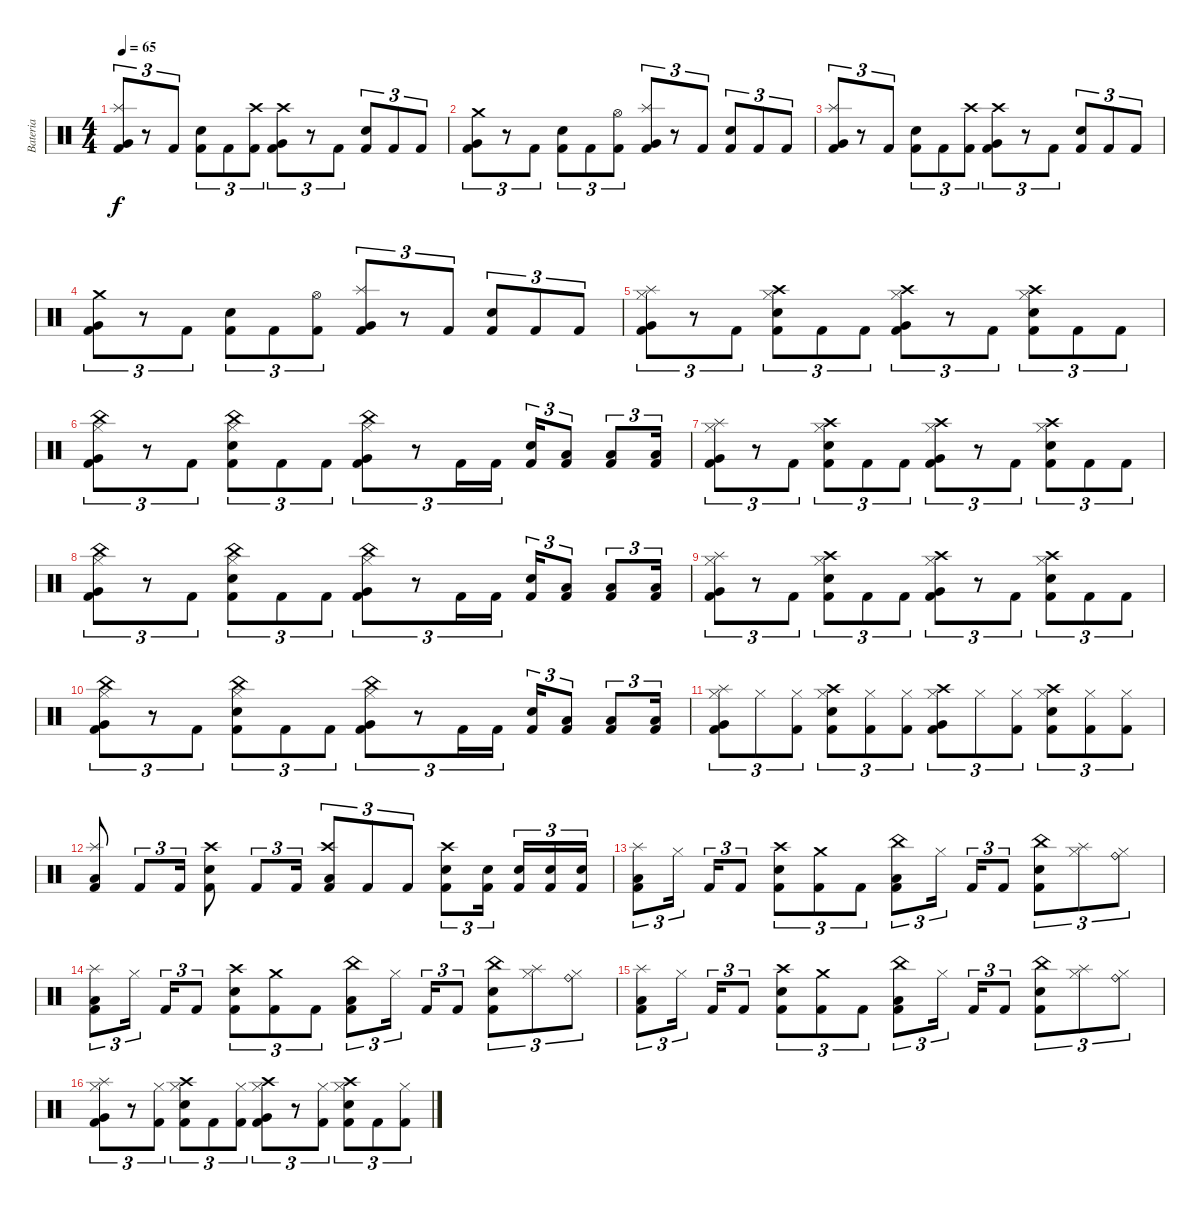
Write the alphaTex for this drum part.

\track ("Bateria" "Bateria") {instrument percussion}
\staff {score}
\articulation defaults
\ts (4 4)
\tempo 65
\clef neutral
\ks c
("Kick (hit) 2" "Splash (hit)" "Very Low Tom (hit)").8{tu (3 2) dy f} r.8{tu (3 2)} "Kick (hit) 2".8{tu (3 2)} ("Snare (hit) 2" "Kick (hit) 2").8{tu (3 2)} "Kick (hit) 2".8{tu (3 2)} ("Crash high (hit)" "Kick (hit) 2").8{tu (3 2)} ("Kick (hit) 2" "Crash high (hit)" "Very Low Tom (hit)").8{tu (3 2)} r.8{tu (3 2)} "Kick (hit) 2".8{tu (3 2)} ("Snare (hit) 2" "Kick (hit) 2").8{tu (3 2)} "Kick (hit) 2".8{tu (3 2)} "Kick (hit) 2".8{tu (3 2)} |
("Kick (hit) 2" "Crash medium (hit)" "Very Low Tom (hit)").8{tu (3 2)} r.8{tu (3 2)} "Kick (hit) 2".8{tu (3 2)} ("Snare (hit) 2" "Kick (hit) 2").8{tu (3 2)} "Kick (hit) 2".8{tu (3 2)} ("Hi-Hat (open)" "Kick (hit) 2").8{tu (3 2)} ("Kick (hit) 2" "Splash (hit)" "Very Low Tom (hit)").8{tu (3 2)} r.8{tu (3 2)} "Kick (hit) 2".8{tu (3 2)} ("Snare (hit) 2" "Kick (hit) 2").8{tu (3 2)} "Kick (hit) 2".8{tu (3 2)} "Kick (hit) 2".8{tu (3 2)} |
("Kick (hit) 2" "Splash (hit)" "Very Low Tom (hit)").8{tu (3 2)} r.8{tu (3 2)} "Kick (hit) 2".8{tu (3 2)} ("Snare (hit) 2" "Kick (hit) 2").8{tu (3 2)} "Kick (hit) 2".8{tu (3 2)} ("Crash high (hit)" "Kick (hit) 2").8{tu (3 2)} ("Kick (hit) 2" "Crash high (hit)" "Very Low Tom (hit)").8{tu (3 2)} r.8{tu (3 2)} "Kick (hit) 2".8{tu (3 2)} ("Snare (hit) 2" "Kick (hit) 2").8{tu (3 2)} "Kick (hit) 2".8{tu (3 2)} "Kick (hit) 2".8{tu (3 2)} |
("Kick (hit) 2" "Crash medium (hit)" "Very Low Tom (hit)").8{tu (3 2)} r.8{tu (3 2)} "Kick (hit) 2".8{tu (3 2)} ("Snare (hit) 2" "Kick (hit) 2").8{tu (3 2)} "Kick (hit) 2".8{tu (3 2)} ("Hi-Hat (open)" "Kick (hit) 2").8{tu (3 2)} ("Kick (hit) 2" "Splash (hit)" "Very Low Tom (hit)").8{tu (3 2)} r.8{tu (3 2)} "Kick (hit) 2".8{tu (3 2)} ("Snare (hit) 2" "Kick (hit) 2").8{tu (3 2)} "Kick (hit) 2".8{tu (3 2)} "Kick (hit) 2".8{tu (3 2)} |
("Kick (hit) 2" "Splash (hit)" "Very Low Tom (hit)" "Hi-Hat (closed)").8{tu (3 2)} r.8{tu (3 2)} "Kick (hit) 2".8{tu (3 2)} ("Snare (hit) 2" "Kick (hit) 2" "Crash high (hit)" "Hi-Hat (closed)").8{tu (3 2)} "Kick (hit) 2".8{tu (3 2)} "Kick (hit) 2".8{tu (3 2)} ("Kick (hit) 2" "Crash high (hit)" "Very Low Tom (hit)" "Hi-Hat (closed)").8{tu (3 2)} r.8{tu (3 2)} "Kick (hit) 2".8{tu (3 2)} ("Snare (hit) 2" "Kick (hit) 2" "Crash high (hit)" "Hi-Hat (closed)").8{tu (3 2)} "Kick (hit) 2".8{tu (3 2)} "Kick (hit) 2".8{tu (3 2)} |
("Kick (hit) 2" "China (hit)" "Very Low Tom (hit)" "Hi-Hat (closed)").8{tu (3 2)} r.8{tu (3 2)} "Kick (hit) 2".8{tu (3 2)} ("Snare (hit) 2" "Kick (hit) 2" "China (hit)" "Hi-Hat (closed)").8{tu (3 2)} "Kick (hit) 2".8{tu (3 2)} "Kick (hit) 2".8{tu (3 2)} ("Kick (hit) 2" "China (hit)" "Very Low Tom (hit)" "Hi-Hat (closed)").8{tu (3 2)} r.8{tu (3 2)} "Kick (hit) 2".16{tu (3 2)} "Kick (hit) 2".16{tu (3 2)} ("Snare (hit) 2" "Kick (hit) 2").16{tu (3 2)} ("Low Floor Tom (hit)" "Kick (hit) 2").8{tu (3 2)} ("Kick (hit) 2" "Low Floor Tom (hit)").8{tu (3 2)} ("Low Floor Tom (hit)" "Kick (hit) 2").16{tu (3 2)} |
("Kick (hit) 2" "Splash (hit)" "Very Low Tom (hit)" "Hi-Hat (closed)").8{tu (3 2)} r.8{tu (3 2)} "Kick (hit) 2".8{tu (3 2)} ("Snare (hit) 2" "Kick (hit) 2" "Crash high (hit)" "Hi-Hat (closed)").8{tu (3 2)} "Kick (hit) 2".8{tu (3 2)} "Kick (hit) 2".8{tu (3 2)} ("Kick (hit) 2" "Crash high (hit)" "Very Low Tom (hit)" "Hi-Hat (closed)").8{tu (3 2)} r.8{tu (3 2)} "Kick (hit) 2".8{tu (3 2)} ("Snare (hit) 2" "Kick (hit) 2" "Crash high (hit)" "Hi-Hat (closed)").8{tu (3 2)} "Kick (hit) 2".8{tu (3 2)} "Kick (hit) 2".8{tu (3 2)} |
("Kick (hit) 2" "China (hit)" "Very Low Tom (hit)" "Hi-Hat (closed)").8{tu (3 2)} r.8{tu (3 2)} "Kick (hit) 2".8{tu (3 2)} ("Snare (hit) 2" "Kick (hit) 2" "China (hit)" "Hi-Hat (closed)").8{tu (3 2)} "Kick (hit) 2".8{tu (3 2)} "Kick (hit) 2".8{tu (3 2)} ("Kick (hit) 2" "China (hit)" "Very Low Tom (hit)" "Hi-Hat (closed)").8{tu (3 2)} r.8{tu (3 2)} "Kick (hit) 2".16{tu (3 2)} "Kick (hit) 2".16{tu (3 2)} ("Snare (hit) 2" "Kick (hit) 2").16{tu (3 2)} ("Low Floor Tom (hit)" "Kick (hit) 2").8{tu (3 2)} ("Kick (hit) 2" "Low Floor Tom (hit)").8{tu (3 2)} ("Low Floor Tom (hit)" "Kick (hit) 2").16{tu (3 2)} |
("Kick (hit) 2" "Splash (hit)" "Very Low Tom (hit)" "Hi-Hat (closed)").8{tu (3 2)} r.8{tu (3 2)} "Kick (hit) 2".8{tu (3 2)} ("Snare (hit) 2" "Kick (hit) 2" "Crash high (hit)" "Hi-Hat (closed)").8{tu (3 2)} "Kick (hit) 2".8{tu (3 2)} "Kick (hit) 2".8{tu (3 2)} ("Kick (hit) 2" "Crash high (hit)" "Very Low Tom (hit)" "Hi-Hat (closed)").8{tu (3 2)} r.8{tu (3 2)} "Kick (hit) 2".8{tu (3 2)} ("Snare (hit) 2" "Kick (hit) 2" "Crash high (hit)" "Hi-Hat (closed)").8{tu (3 2)} "Kick (hit) 2".8{tu (3 2)} "Kick (hit) 2".8{tu (3 2)} |
("Kick (hit) 2" "China (hit)" "Very Low Tom (hit)" "Hi-Hat (closed)").8{tu (3 2)} r.8{tu (3 2)} "Kick (hit) 2".8{tu (3 2)} ("Snare (hit) 2" "Kick (hit) 2" "China (hit)" "Hi-Hat (closed)").8{tu (3 2)} "Kick (hit) 2".8{tu (3 2)} "Kick (hit) 2".8{tu (3 2)} ("Kick (hit) 2" "China (hit)" "Very Low Tom (hit)" "Hi-Hat (closed)").8{tu (3 2)} r.8{tu (3 2)} "Kick (hit) 2".16{tu (3 2)} "Kick (hit) 2".16{tu (3 2)} ("Snare (hit) 2" "Kick (hit) 2").16{tu (3 2)} ("Low Floor Tom (hit)" "Kick (hit) 2").8{tu (3 2)} ("Kick (hit) 2" "Low Floor Tom (hit)").8{tu (3 2)} ("Low Floor Tom (hit)" "Kick (hit) 2").16{tu (3 2)} |
("Kick (hit) 2" "Splash (hit)" "Very Low Tom (hit)" "Hi-Hat (closed)").8{tu (3 2)} "Hi-Hat (closed)".8{tu (3 2)} ("Kick (hit) 2" "Hi-Hat (closed)").8{tu (3 2)} ("Snare (hit) 2" "Kick (hit) 2" "Crash high (hit)" "Hi-Hat (closed)").8{tu (3 2)} ("Kick (hit) 2" "Hi-Hat (closed)").8{tu (3 2)} ("Kick (hit) 2" "Hi-Hat (closed)").8{tu (3 2)} ("Kick (hit) 2" "Crash high (hit)" "Very Low Tom (hit)" "Hi-Hat (closed)").8{tu (3 2)} "Hi-Hat (closed)".8{tu (3 2)} ("Kick (hit) 2" "Hi-Hat (closed)").8{tu (3 2)} ("Snare (hit) 2" "Kick (hit) 2" "Crash high (hit)" "Hi-Hat (closed)").8{tu (3 2)} ("Kick (hit) 2" "Hi-Hat (closed)").8{tu (3 2)} ("Kick (hit) 2" "Hi-Hat (closed)").8{tu (3 2)} |
("Kick (hit) 2" "Low Floor Tom (hit)" "Splash (hit)").8 "Kick (hit) 2".8{tu (3 2)} "Kick (hit) 2".16{tu (3 2)} ("Kick (hit) 2" "Snare (hit) 2" "Crash high (hit)").8 "Kick (hit) 2".8{tu (3 2)} "Kick (hit) 2".16{tu (3 2)} ("Kick (hit) 2" "Low Floor Tom (hit)" "Crash high (hit)").8{tu (3 2)} "Kick (hit) 2".8{tu (3 2)} "Kick (hit) 2".8{tu (3 2)} ("Kick (hit) 2" "Snare (hit) 2" "Crash high (hit)").8{tu (3 2)} ("Kick (hit) 2" "Snare (hit) 2").16{tu (3 2) beam splitsecondary} ("Kick (hit) 2" "Snare (hit) 2").16{tu (3 2)} ("Kick (hit) 2" "Snare (hit) 2").16{tu (3 2)} ("Kick (hit) 2" "Snare (hit) 2").16{tu (3 2)} |
("Kick (hit) 2" "Splash (hit)" "Low Floor Tom (hit)").8{tu (3 2)} "Hi-Hat (closed)".16{tu (3 2) beam splitsecondary} "Kick (hit) 2".16{tu (3 2)} "Kick (hit) 2".8{tu (3 2)} ("Snare (hit) 2" "Kick (hit) 2" "Crash high (hit)").8{tu (3 2)} ("Crash medium (hit)" "Kick (hit) 2").8{tu (3 2)} "Kick (hit) 2".8{tu (3 2)} ("Kick (hit) 2" "China (hit)" "Low Floor Tom (hit)").8{tu (3 2)} "Hi-Hat (closed)".16{tu (3 2) beam splitsecondary} "Kick (hit) 2".16{tu (3 2)} "Kick (hit) 2".8{tu (3 2)} ("Snare (hit) 2" "Kick (hit) 2" "China (hit)").8{tu (3 2)} ("Hi-Hat (closed)" "Splash (hit)").8{tu (3 2)} ("Hi-Hat (closed)" "Ride (bell)").8{tu (3 2)} |
("Kick (hit) 2" "Splash (hit)" "Low Floor Tom (hit)").8{tu (3 2)} "Hi-Hat (closed)".16{tu (3 2) beam splitsecondary} "Kick (hit) 2".16{tu (3 2)} "Kick (hit) 2".8{tu (3 2)} ("Snare (hit) 2" "Kick (hit) 2" "Crash high (hit)").8{tu (3 2)} ("Crash medium (hit)" "Kick (hit) 2").8{tu (3 2)} "Kick (hit) 2".8{tu (3 2)} ("Kick (hit) 2" "China (hit)" "Low Floor Tom (hit)").8{tu (3 2)} "Hi-Hat (closed)".16{tu (3 2) beam splitsecondary} "Kick (hit) 2".16{tu (3 2)} "Kick (hit) 2".8{tu (3 2)} ("Snare (hit) 2" "Kick (hit) 2" "China (hit)").8{tu (3 2)} ("Hi-Hat (closed)" "Splash (hit)").8{tu (3 2)} ("Hi-Hat (closed)" "Ride (bell)").8{tu (3 2)} |
("Kick (hit) 2" "Splash (hit)" "Low Floor Tom (hit)").8{tu (3 2)} "Hi-Hat (closed)".16{tu (3 2) beam splitsecondary} "Kick (hit) 2".16{tu (3 2)} "Kick (hit) 2".8{tu (3 2)} ("Snare (hit) 2" "Kick (hit) 2" "Crash high (hit)").8{tu (3 2)} ("Crash medium (hit)" "Kick (hit) 2").8{tu (3 2)} "Kick (hit) 2".8{tu (3 2)} ("Kick (hit) 2" "China (hit)" "Low Floor Tom (hit)").8{tu (3 2)} "Hi-Hat (closed)".16{tu (3 2) beam splitsecondary} "Kick (hit) 2".16{tu (3 2)} "Kick (hit) 2".8{tu (3 2)} ("Snare (hit) 2" "Kick (hit) 2" "China (hit)").8{tu (3 2)} ("Hi-Hat (closed)" "Splash (hit)").8{tu (3 2)} ("Hi-Hat (closed)" "Ride (bell)").8{tu (3 2)} |
("Kick (hit) 2" "Splash (hit)" "Very Low Tom (hit)" "Hi-Hat (closed)").8{tu (3 2)} r.8{tu (3 2)} ("Kick (hit) 2" "Hi-Hat (closed)").8{tu (3 2)} ("Snare (hit) 2" "Kick (hit) 2" "Crash high (hit)" "Hi-Hat (closed)").8{tu (3 2)} "Kick (hit) 2".8{tu (3 2)} ("Kick (hit) 2" "Hi-Hat (closed)").8{tu (3 2)} ("Kick (hit) 2" "Crash high (hit)" "Very Low Tom (hit)" "Hi-Hat (closed)").8{tu (3 2)} r.8{tu (3 2)} ("Kick (hit) 2" "Hi-Hat (closed)").8{tu (3 2)} ("Snare (hit) 2" "Kick (hit) 2" "Crash high (hit)" "Hi-Hat (closed)").8{tu (3 2)} "Kick (hit) 2".8{tu (3 2)} ("Kick (hit) 2" "Hi-Hat (closed)").8{tu (3 2)}
